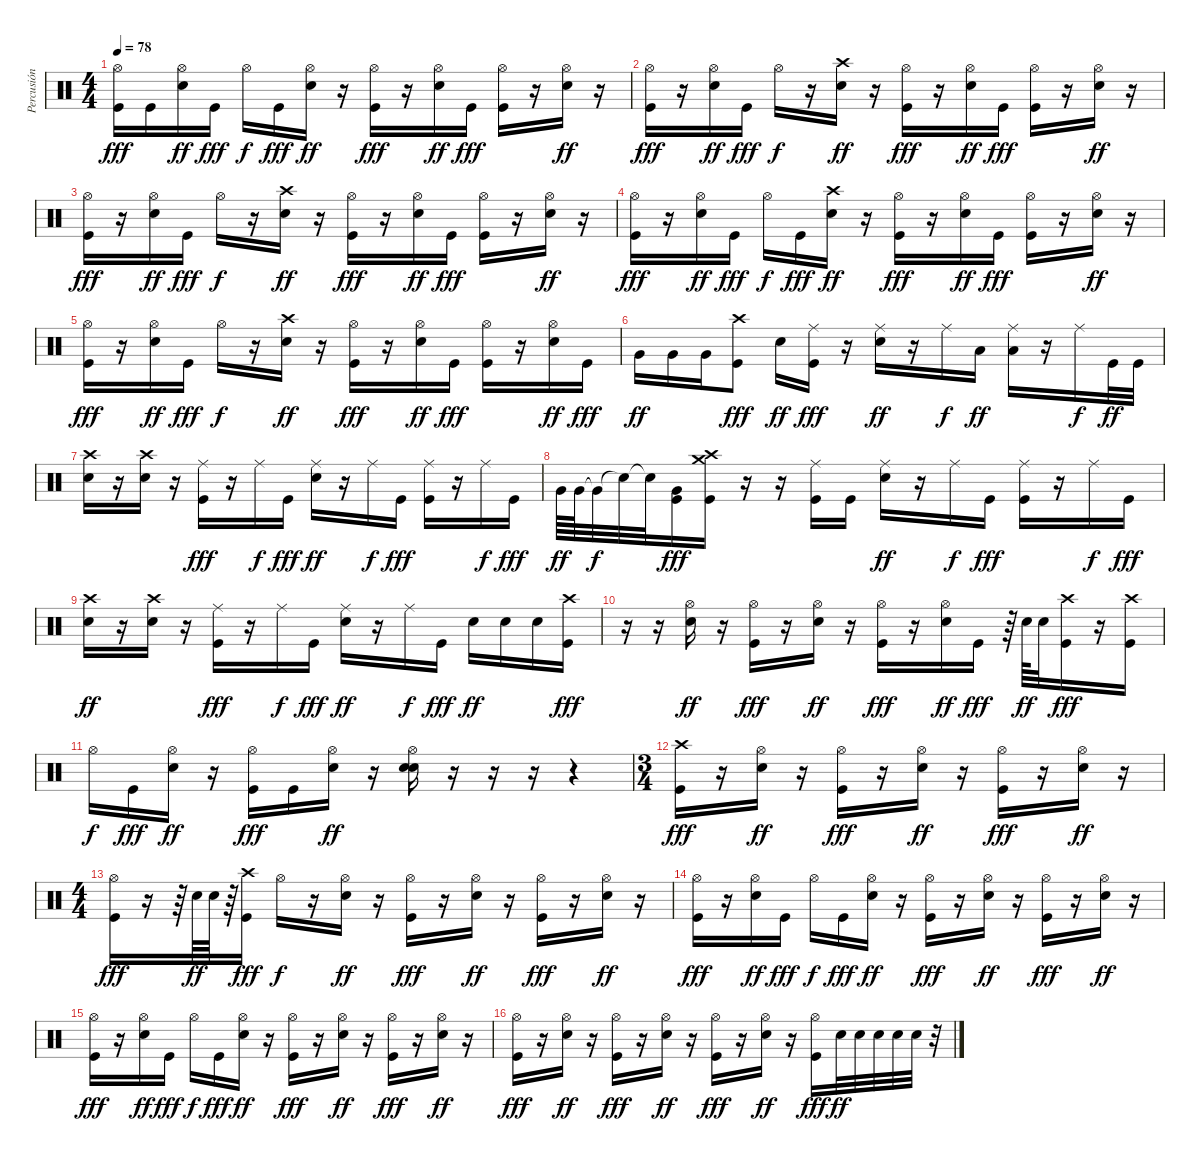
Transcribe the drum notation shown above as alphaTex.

\track ("Percusión" "Percusión") {instrument percussion}
\staff {score}
\articulation defaults
\ts (4 4)
\tempo 78
\clef neutral
\ks c
("Hi-Hat (open)" "Kick (hit)").16{dy fff} "Kick (hit)".16 ("Hi-Hat (open)" "Snare (hit) 2").16{dy ff} "Kick (hit)".16{dy fff} "Hi-Hat (open)".16{dy f} "Kick (hit)".16{dy fff} ("Hi-Hat (open)" "Snare (hit) 2").16{dy ff} r.16 ("Hi-Hat (open)" "Kick (hit)").16{dy fff} r.16 ("Hi-Hat (open)" "Snare (hit) 2").16{dy ff} "Kick (hit)".16{dy fff} ("Hi-Hat (open)" "Kick (hit)").16 r.16 ("Hi-Hat (open)" "Snare (hit) 2").16{dy ff} r.16 |
("Hi-Hat (open)" "Kick (hit)").16{dy fff} r.16 ("Hi-Hat (open)" "Snare (hit) 2").16{dy ff} "Kick (hit)".16{dy fff} "Hi-Hat (open)".16{dy f} r.16 ("Crash high (hit)" "Snare (hit) 2").16{dy ff} r.16 ("Hi-Hat (open)" "Kick (hit)").16{dy fff} r.16 ("Hi-Hat (open)" "Snare (hit) 2").16{dy ff} "Kick (hit)".16{dy fff} ("Hi-Hat (open)" "Kick (hit)").16 r.16 ("Hi-Hat (open)" "Snare (hit) 2").16{dy ff} r.16 |
("Hi-Hat (open)" "Kick (hit)").16{dy fff} r.16 ("Hi-Hat (open)" "Snare (hit) 2").16{dy ff} "Kick (hit)".16{dy fff} "Hi-Hat (open)".16{dy f} r.16 ("Crash high (hit)" "Snare (hit) 2").16{dy ff} r.16 ("Hi-Hat (open)" "Kick (hit)").16{dy fff} r.16 ("Hi-Hat (open)" "Snare (hit) 2").16{dy ff} "Kick (hit)".16{dy fff} ("Hi-Hat (open)" "Kick (hit)").16 r.16 ("Hi-Hat (open)" "Snare (hit) 2").16{dy ff} r.16 |
("Hi-Hat (open)" "Kick (hit)").16{dy fff} r.16 ("Hi-Hat (open)" "Snare (hit) 2").16{dy ff} "Kick (hit)".16{dy fff} "Hi-Hat (open)".16{dy f} "Kick (hit)".16{dy fff} ("Crash high (hit)" "Snare (hit) 2").16{dy ff} r.16 ("Hi-Hat (open)" "Kick (hit)").16{dy fff} r.16 ("Hi-Hat (open)" "Snare (hit) 2").16{dy ff} "Kick (hit)".16{dy fff} ("Hi-Hat (open)" "Kick (hit)").16 r.16 ("Hi-Hat (open)" "Snare (hit) 2").16{dy ff} r.16 |
("Hi-Hat (open)" "Kick (hit)").16{dy fff} r.16 ("Hi-Hat (open)" "Snare (hit) 2").16{dy ff} "Kick (hit)".16{dy fff} "Hi-Hat (open)".16{dy f} r.16 ("Crash high (hit)" "Snare (hit) 2").16{dy ff} r.16 ("Hi-Hat (open)" "Kick (hit)").16{dy fff} r.16 ("Hi-Hat (open)" "Snare (hit) 2").16{dy ff} "Kick (hit)".16{dy fff} ("Hi-Hat (open)" "Kick (hit)").16 r.16 ("Hi-Hat (open)" "Snare (hit) 2").16{dy ff} "Kick (hit)".16{dy fff} |
"Very Low Tom (hit)".16{dy ff} "Very Low Tom (hit)".16 "Very Low Tom (hit)".16 ("Crash high (hit)" "Kick (hit)").8{dy fff} "Snare (hit) 2".16{dy ff} ("Ride (middle)" "Kick (hit)").16{dy fff} r.16 ("Ride (middle)" "Snare (hit) 2").16{dy ff} r.16 "Ride (middle)".16{dy f} "Low Tom (hit)".16{dy ff} ("Ride (middle)" "Low Tom (hit)").16 r.16 "Ride (middle)".16{dy f} "Kick (hit)".32{dy ff} "Kick (hit)".32 |
("Crash high (hit)" "Snare (hit) 2").16 r.16 ("Crash high (hit)" "Snare (hit) 2").16 r.16 ("Ride (middle)" "Kick (hit)").16{dy fff} r.16 "Ride (middle)".16{dy f} "Kick (hit)".16{dy fff} ("Ride (middle)" "Snare (hit) 2").16{dy ff} r.16 "Ride (middle)".16{dy f} "Kick (hit)".16{dy fff} ("Ride (middle)" "Kick (hit)").16 r.16 "Ride (middle)".16{dy f} "Kick (hit)".16{dy fff} |
"Very Low Tom (hit)".64{dy ff} "Very Low Tom (hit)".64 "Very Low Tom (hit)"{t}.32{dy f} "Snare (hit)"{t}.32 "Snare (hit)"{t}.32 ("Very Low Tom (hit)" "Kick (hit)").16{dy fff} ("Crash medium (hit)" "Crash high (hit)" "Kick (hit)").16 r.16 r.16 ("Ride (middle)" "Kick (hit)").16 "Kick (hit)".16 ("Ride (middle)" "Snare (hit) 2").16{dy ff} r.16 "Ride (middle)".16{dy f} "Kick (hit)".16{dy fff} ("Ride (middle)" "Kick (hit)").16 r.16 "Ride (middle)".16{dy f} "Kick (hit)".16{dy fff} |
("Crash high (hit)" "Snare (hit) 2").16{dy ff} r.16 ("Crash high (hit)" "Snare (hit) 2").16 r.16 ("Ride (middle)" "Kick (hit)").16{dy fff} r.16 "Ride (middle)".16{dy f} "Kick (hit)".16{dy fff} ("Ride (middle)" "Snare (hit) 2").16{dy ff} r.16 "Ride (middle)".16{dy f} "Kick (hit)".16{dy fff} "Snare (hit) 2".16{dy ff} "Snare (hit) 2".16 "Snare (hit) 2".16 ("Crash high (hit)" "Kick (hit)").16{dy fff} |
r.16 r.16 ("Hi-Hat (open)" "Snare (hit) 2").16{dy ff} r.16 ("Hi-Hat (open)" "Kick (hit)").16{dy fff} r.16 ("Hi-Hat (open)" "Snare (hit) 2").16{dy ff} r.16 ("Hi-Hat (open)" "Kick (hit)").16{dy fff} r.16 ("Hi-Hat (open)" "Snare (hit) 2").16{dy ff} "Kick (hit)".16{dy fff} r.64 "Snare (hit) 2".64{dy ff} "Snare (hit) 2".32 ("Crash high (hit)" "Kick (hit)").16{dy fff} r.16 ("Crash high (hit)" "Kick (hit)").16 |
"Hi-Hat (open)".16{dy f} "Kick (hit)".16{dy fff} ("Hi-Hat (open)" "Snare (hit) 2").16{dy ff} r.16 ("Hi-Hat (open)" "Kick (hit)").16{dy fff} "Kick (hit)".16 ("Hi-Hat (open)" "Snare (hit) 2").16{dy ff} r.16 ("Hi-Hat (open)" "Snare (hit) 2" "Snare (hit) 2").16 r.16 r.16 r.16 r.4 |
\ts (3 4)
("Crash high (hit)" "Kick (hit)").16{dy fff} r.16 ("Hi-Hat (open)" "Snare (hit) 2").16{dy ff} r.16 ("Hi-Hat (open)" "Kick (hit)").16{dy fff} r.16 ("Hi-Hat (open)" "Snare (hit) 2").16{dy ff} r.16 ("Hi-Hat (open)" "Kick (hit)").16{dy fff} r.16 ("Hi-Hat (open)" "Snare (hit) 2").16{dy ff} r.16 |
\ts (4 4)
("Hi-Hat (open)" "Kick (hit)").16{dy fff} r.16 r.64 "Snare (hit) 2".64{dy ff} "Snare (hit) 2".64 r.64 ("Crash high (hit)" "Kick (hit)").16{dy fff} "Hi-Hat (open)".16{dy f} r.16 ("Hi-Hat (open)" "Snare (hit) 2").16{dy ff} r.16 ("Hi-Hat (open)" "Kick (hit)").16{dy fff} r.16 ("Hi-Hat (open)" "Snare (hit) 2").16{dy ff} r.16 ("Hi-Hat (open)" "Kick (hit)").16{dy fff} r.16 ("Hi-Hat (open)" "Snare (hit) 2").16{dy ff} r.16 |
("Hi-Hat (open)" "Kick (hit)").16{dy fff} r.16 ("Hi-Hat (open)" "Snare (hit) 2").16{dy ff} "Kick (hit)".16{dy fff} "Hi-Hat (open)".16{dy f} "Kick (hit)".16{dy fff} ("Hi-Hat (open)" "Snare (hit) 2").16{dy ff} r.16 ("Hi-Hat (open)" "Kick (hit)").16{dy fff} r.16 ("Hi-Hat (open)" "Snare (hit) 2").16{dy ff} r.16 ("Hi-Hat (open)" "Kick (hit)").16{dy fff} r.16 ("Hi-Hat (open)" "Snare (hit) 2").16{dy ff} r.16 |
("Hi-Hat (open)" "Kick (hit)").16{dy fff} r.16 ("Hi-Hat (open)" "Snare (hit) 2").16{dy ff} "Kick (hit)".16{dy fff} "Hi-Hat (open)".16{dy f} "Kick (hit)".16{dy fff} ("Hi-Hat (open)" "Snare (hit) 2").16{dy ff} r.16 ("Hi-Hat (open)" "Kick (hit)").16{dy fff} r.16 ("Hi-Hat (open)" "Snare (hit) 2").16{dy ff} r.16 ("Hi-Hat (open)" "Kick (hit)").16{dy fff} r.16 ("Hi-Hat (open)" "Snare (hit) 2").16{dy ff} r.16 |
("Hi-Hat (open)" "Kick (hit)").16{dy fff} r.16 ("Hi-Hat (open)" "Snare (hit) 2").16{dy ff} r.16 ("Hi-Hat (open)" "Kick (hit)").16{dy fff} r.16 ("Hi-Hat (open)" "Snare (hit) 2").16{dy ff} r.16 ("Hi-Hat (open)" "Kick (hit)").16{dy fff} r.16 ("Hi-Hat (open)" "Snare (hit) 2").16{dy ff} r.16 ("Hi-Hat (open)" "Kick (hit)").16{dy fff} "Snare (hit) 2".32{dy ff} "Snare (hit) 2".32 "Snare (hit) 2".32 "Snare (hit) 2".32 "Snare (hit) 2".32 r.32
